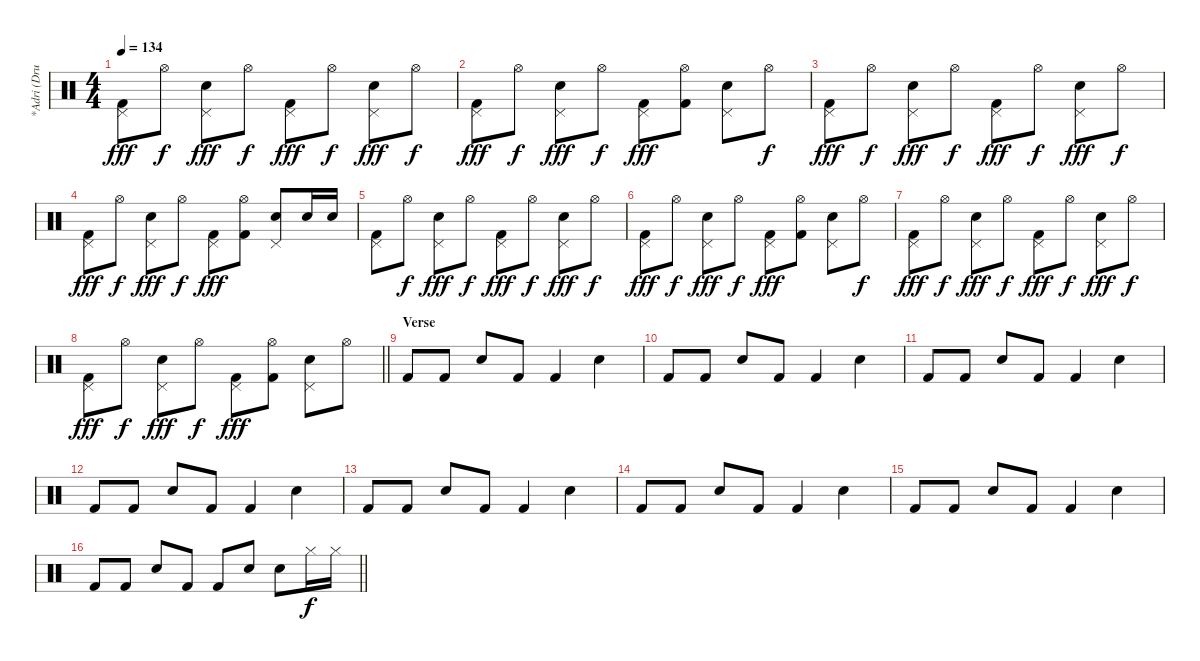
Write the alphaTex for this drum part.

\track ("*Adri (Drum)" "*Adri (Dru") {instrument percussion}
\staff {score}
\articulation defaults
\ts (4 4)
\section ("" "")
\tempo 134
\clef neutral
\ks c
("Pedal Hi-Hat (hit)" "Kick (hit) 2").8{dy fff} "Hi-Hat (open)".8{dy f} ("Pedal Hi-Hat (hit)" "Snare (hit) 2").8{dy fff} "Hi-Hat (open)".8{dy f} ("Pedal Hi-Hat (hit)" "Kick (hit) 2").8{dy fff} "Hi-Hat (open)".8{dy f} ("Pedal Hi-Hat (hit)" "Snare (hit) 2").8{dy fff} "Hi-Hat (open)".8{dy f} |
("Pedal Hi-Hat (hit)" "Kick (hit) 2").8{dy fff} "Hi-Hat (open)".8{dy f} ("Pedal Hi-Hat (hit)" "Snare (hit) 2").8{dy fff} "Hi-Hat (open)".8{dy f} ("Pedal Hi-Hat (hit)" "Kick (hit) 2").8{dy fff} ("Hi-Hat (open)" "Kick (hit) 2").8 ("Pedal Hi-Hat (hit)" "Snare (hit) 2").8 "Hi-Hat (open)".8{dy f} |
("Pedal Hi-Hat (hit)" "Kick (hit) 2").8{dy fff} "Hi-Hat (open)".8{dy f} ("Pedal Hi-Hat (hit)" "Snare (hit) 2").8{dy fff} "Hi-Hat (open)".8{dy f} ("Pedal Hi-Hat (hit)" "Kick (hit) 2").8{dy fff} "Hi-Hat (open)".8{dy f} ("Pedal Hi-Hat (hit)" "Snare (hit) 2").8{dy fff} "Hi-Hat (open)".8{dy f} |
("Pedal Hi-Hat (hit)" "Kick (hit) 2").8{dy fff} "Hi-Hat (open)".8{dy f} ("Pedal Hi-Hat (hit)" "Snare (hit) 2").8{dy fff} "Hi-Hat (open)".8{dy f} ("Pedal Hi-Hat (hit)" "Kick (hit) 2").8{dy fff} ("Hi-Hat (open)" "Kick (hit) 2").8 ("Pedal Hi-Hat (hit)" "Snare (hit) 2").8 "Snare (hit) 2".16 "Snare (hit) 2".16 |
("Pedal Hi-Hat (hit)" "Kick (hit) 2").8 "Hi-Hat (open)".8{dy f} ("Pedal Hi-Hat (hit)" "Snare (hit) 2").8{dy fff} "Hi-Hat (open)".8{dy f} ("Pedal Hi-Hat (hit)" "Kick (hit) 2").8{dy fff} "Hi-Hat (open)".8{dy f} ("Pedal Hi-Hat (hit)" "Snare (hit) 2").8{dy fff} "Hi-Hat (open)".8{dy f} |
("Pedal Hi-Hat (hit)" "Kick (hit) 2").8{dy fff} "Hi-Hat (open)".8{dy f} ("Pedal Hi-Hat (hit)" "Snare (hit) 2").8{dy fff} "Hi-Hat (open)".8{dy f} ("Pedal Hi-Hat (hit)" "Kick (hit) 2").8{dy fff} ("Hi-Hat (open)" "Kick (hit) 2").8 ("Pedal Hi-Hat (hit)" "Snare (hit) 2").8 "Hi-Hat (open)".8{dy f} |
("Pedal Hi-Hat (hit)" "Kick (hit) 2").8{dy fff} "Hi-Hat (open)".8{dy f} ("Pedal Hi-Hat (hit)" "Snare (hit) 2").8{dy fff} "Hi-Hat (open)".8{dy f} ("Pedal Hi-Hat (hit)" "Kick (hit) 2").8{dy fff} "Hi-Hat (open)".8{dy f} ("Pedal Hi-Hat (hit)" "Snare (hit) 2").8{dy fff} "Hi-Hat (open)".8{dy f} |
\barLineRight lightlight
("Pedal Hi-Hat (hit)" "Kick (hit) 2").8{dy fff} "Hi-Hat (open)".8{dy f} ("Pedal Hi-Hat (hit)" "Snare (hit) 2").8{dy fff} "Hi-Hat (open)".8{dy f} ("Pedal Hi-Hat (hit)" "Kick (hit) 2").8{dy fff} ("Hi-Hat (open)" "Kick (hit) 2").8 ("Pedal Hi-Hat (hit)" "Snare (hit) 2").8 "Hi-Hat (open)".8 |
\section ("" "Verse")
"Kick (hit) 2".8 "Kick (hit) 2".8 "Snare (hit) 2".8 "Kick (hit) 2".8 "Kick (hit) 2".4 "Snare (hit) 2".4 |
"Kick (hit) 2".8 "Kick (hit) 2".8 "Snare (hit) 2".8 "Kick (hit) 2".8 "Kick (hit) 2".4 "Snare (hit) 2".4 |
"Kick (hit) 2".8 "Kick (hit) 2".8 "Snare (hit) 2".8 "Kick (hit) 2".8 "Kick (hit) 2".4 "Snare (hit) 2".4 |
"Kick (hit) 2".8 "Kick (hit) 2".8 "Snare (hit) 2".8 "Kick (hit) 2".8 "Kick (hit) 2".4 "Snare (hit) 2".4 |
"Kick (hit) 2".8 "Kick (hit) 2".8 "Snare (hit) 2".8 "Kick (hit) 2".8 "Kick (hit) 2".4 "Snare (hit) 2".4 |
"Kick (hit) 2".8 "Kick (hit) 2".8 "Snare (hit) 2".8 "Kick (hit) 2".8 "Kick (hit) 2".4 "Snare (hit) 2".4 |
"Kick (hit) 2".8 "Kick (hit) 2".8 "Snare (hit) 2".8 "Kick (hit) 2".8 "Kick (hit) 2".4 "Snare (hit) 2".4 |
\barLineRight lightlight "Kick (hit) 2".8 "Kick (hit) 2".8 "Snare (hit) 2".8 "Kick (hit) 2".8 "Kick (hit) 2".8 "Snare (hit) 2".8 "Snare (hit) 2".8 "Hi-Hat (closed)".16{dy f} "Hi-Hat (closed)".16
